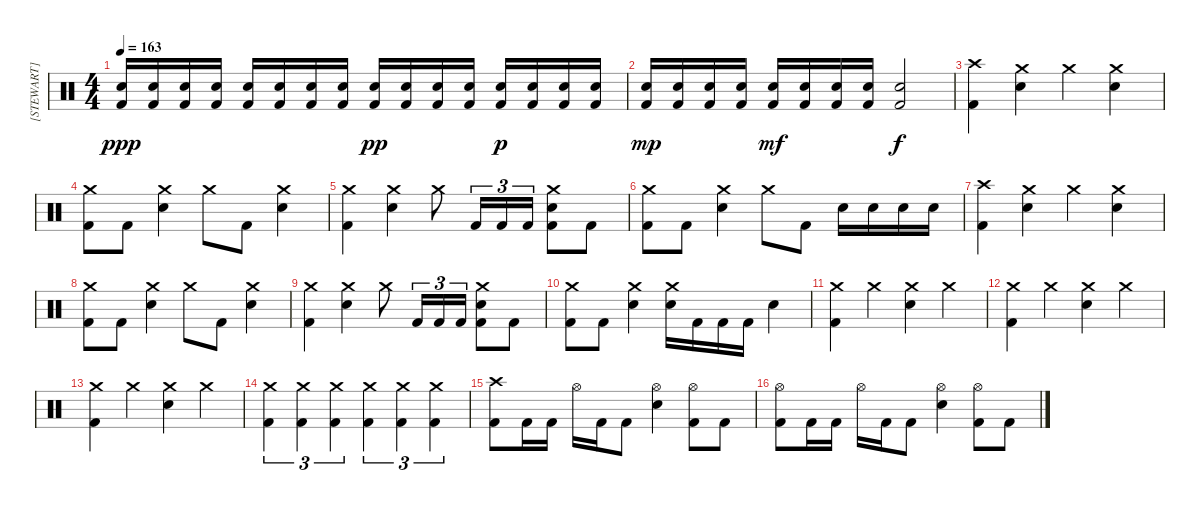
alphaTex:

\track ("[STEWART]" "[STEWART]") {instrument percussion}
\staff {score}
\articulation defaults
\ts (4 4)
\tempo 163
\clef neutral
\ks c
("Electric Snare (hit)" "Kick (hit) 2").16{dy ppp} ("Electric Snare (hit)" "Kick (hit) 2").16 ("Electric Snare (hit)" "Kick (hit) 2").16 ("Electric Snare (hit)" "Kick (hit) 2").16 ("Electric Snare (hit)" "Kick (hit) 2").16 ("Electric Snare (hit)" "Kick (hit) 2").16 ("Electric Snare (hit)" "Kick (hit) 2").16 ("Electric Snare (hit)" "Kick (hit) 2").16 ("Electric Snare (hit)" "Kick (hit) 2").16{dy pp} ("Electric Snare (hit)" "Kick (hit) 2").16 ("Electric Snare (hit)" "Kick (hit) 2").16 ("Electric Snare (hit)" "Kick (hit) 2").16 ("Electric Snare (hit)" "Kick (hit) 2").16{dy p} ("Electric Snare (hit)" "Kick (hit) 2").16 ("Electric Snare (hit)" "Kick (hit) 2").16 ("Electric Snare (hit)" "Kick (hit) 2").16 |
("Electric Snare (hit)" "Kick (hit) 2").16{dy mp} ("Electric Snare (hit)" "Kick (hit) 2").16 ("Electric Snare (hit)" "Kick (hit) 2").16 ("Electric Snare (hit)" "Kick (hit) 2").16 ("Electric Snare (hit)" "Kick (hit) 2").16{dy mf} ("Electric Snare (hit)" "Kick (hit) 2").16 ("Electric Snare (hit)" "Kick (hit) 2").16 ("Electric Snare (hit)" "Kick (hit) 2").16 ("Electric Snare (hit)" "Kick (hit) 2").2{dy f} |
("Crash high (hit)" "Kick (hit) 2").4 ("Crash medium (hit)" "Electric Snare (hit)").4 "Crash medium (hit)".4 ("Crash medium (hit)" "Electric Snare (hit)").4 |
("Crash medium (hit)" "Kick (hit) 2").8 "Kick (hit) 2".8 ("Crash medium (hit)" "Electric Snare (hit)").4 "Crash medium (hit)".8 "Kick (hit) 2".8 ("Crash medium (hit)" "Electric Snare (hit)").4 |
("Crash medium (hit)" "Kick (hit) 2").4 ("Crash medium (hit)" "Electric Snare (hit)").4 "Crash medium (hit)".8 "Kick (hit) 2".16{tu (3 2)} "Kick (hit) 2".16{tu (3 2)} "Kick (hit) 2".16{tu (3 2)} ("Crash medium (hit)" "Electric Snare (hit)" "Kick (hit) 2").8 "Kick (hit) 2".8 |
("Crash medium (hit)" "Kick (hit) 2").8 "Kick (hit) 2".8 ("Crash medium (hit)" "Electric Snare (hit)").4 "Crash medium (hit)".8 "Kick (hit) 2".8 "Electric Snare (hit)".16 "Electric Snare (hit)".16 "Electric Snare (hit)".16 "Electric Snare (hit)".16 |
("Crash high (hit)" "Kick (hit) 2").4 ("Crash medium (hit)" "Electric Snare (hit)").4 "Crash medium (hit)".4 ("Crash medium (hit)" "Electric Snare (hit)").4 |
("Crash medium (hit)" "Kick (hit) 2").8 "Kick (hit) 2".8 ("Crash medium (hit)" "Electric Snare (hit)").4 "Crash medium (hit)".8 "Kick (hit) 2".8 ("Crash medium (hit)" "Electric Snare (hit)").4 |
("Crash medium (hit)" "Kick (hit) 2").4 ("Crash medium (hit)" "Electric Snare (hit)").4 "Crash medium (hit)".8 "Kick (hit) 2".16{tu (3 2)} "Kick (hit) 2".16{tu (3 2)} "Kick (hit) 2".16{tu (3 2)} ("Crash medium (hit)" "Electric Snare (hit)" "Kick (hit) 2").8 "Kick (hit) 2".8 |
("Crash medium (hit)" "Kick (hit) 2").8 "Kick (hit) 2".8 ("Crash medium (hit)" "Electric Snare (hit)").4 ("Crash medium (hit)" "Electric Snare (hit)").16 "Kick (hit) 2".16 "Kick (hit) 2".16 "Kick (hit) 2".16 "Electric Snare (hit)".4 |
("Crash medium (hit)" "Kick (hit) 2").4 "Crash medium (hit)".4 ("Crash medium (hit)" "Electric Snare (hit)").4 "Crash medium (hit)".4 |
("Crash medium (hit)" "Kick (hit) 2").4 "Crash medium (hit)".4 ("Crash medium (hit)" "Electric Snare (hit)").4 "Crash medium (hit)".4 |
("Crash medium (hit)" "Kick (hit) 2").4 "Crash medium (hit)".4 ("Crash medium (hit)" "Electric Snare (hit)").4 "Crash medium (hit)".4 |
("Crash medium (hit)" "Kick (hit) 2").4{tu (3 2)} ("Crash medium (hit)" "Kick (hit) 2").4{tu (3 2)} ("Crash medium (hit)" "Kick (hit) 2").4{tu (3 2)} ("Crash medium (hit)" "Kick (hit) 2").4{tu (3 2)} ("Crash medium (hit)" "Kick (hit) 2").4{tu (3 2)} ("Crash medium (hit)" "Kick (hit) 2").4{tu (3 2)} |
("Crash high (hit)" "Kick (hit) 2").8 "Kick (hit) 2".16 "Kick (hit) 2".16 "Hi-Hat (open)".16 "Kick (hit) 2".16 "Kick (hit) 2".8 ("Hi-Hat (open)" "Electric Snare (hit)").4 ("Hi-Hat (open)" "Kick (hit) 2").8 "Kick (hit) 2".8 |
("Hi-Hat (open)" "Kick (hit) 2").8 "Kick (hit) 2".16 "Kick (hit) 2".16 "Hi-Hat (open)".16 "Kick (hit) 2".16 "Kick (hit) 2".8 ("Hi-Hat (open)" "Electric Snare (hit)").4 ("Hi-Hat (open)" "Kick (hit) 2").8 "Kick (hit) 2".8
